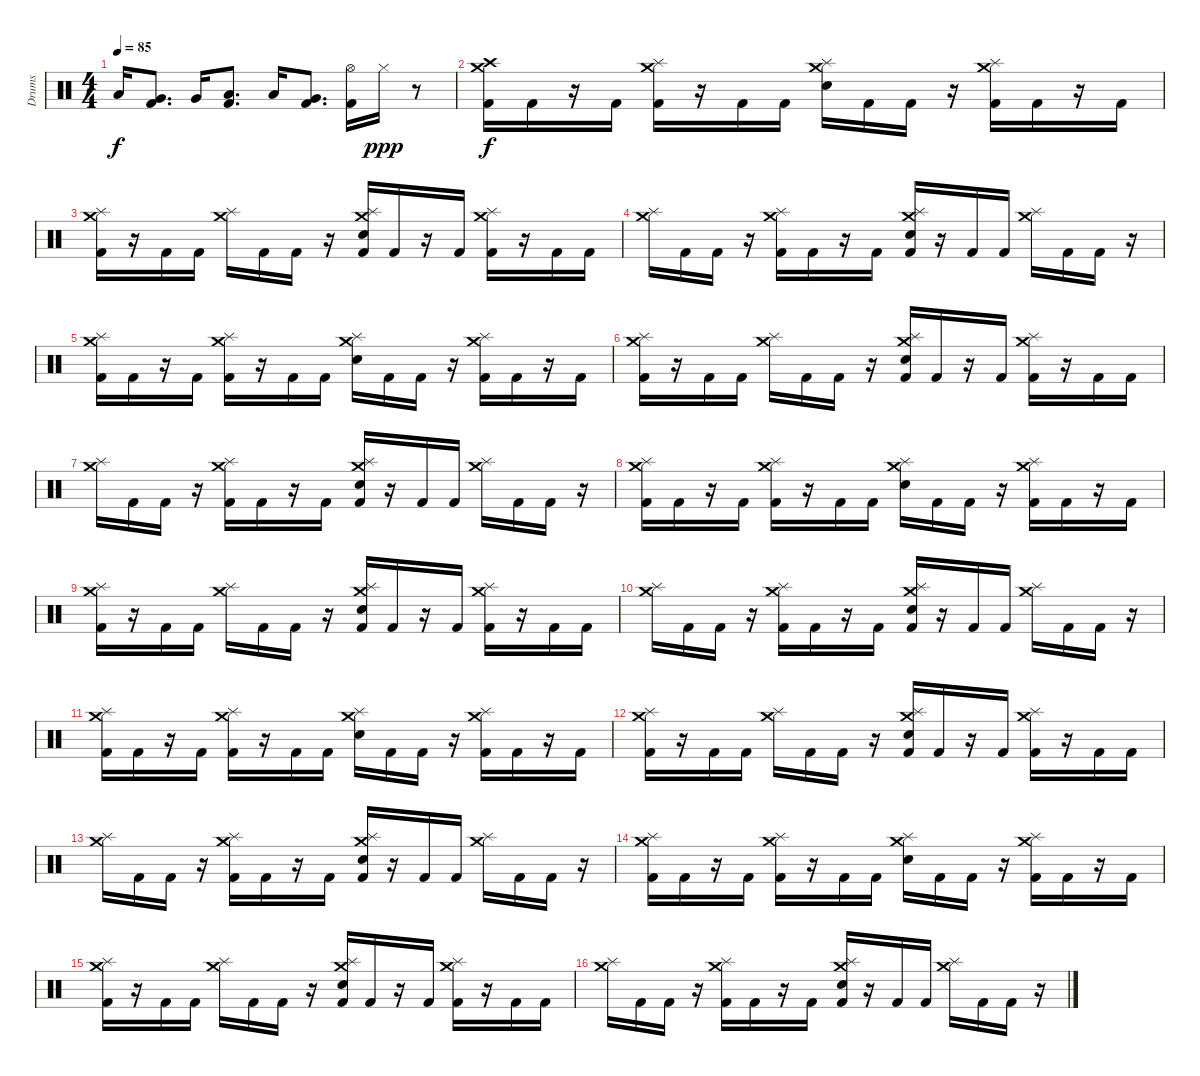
\track ("Drums" "Drums") {instrument percussion}
\staff {score}
\articulation defaults
\ts (4 4)
\tempo 85
\clef neutral
\ks c "Low Tom (hit)".16{dy f}
("Kick (hit) 2" "Very Low Tom (hit)").8{d} "Very Low Tom (hit)".16 ("Kick (hit) 2" "Low Floor Tom (hit)").8{d} "Low Tom (hit)".16 ("Kick (hit) 2" "Very Low Tom (hit)").8{d} ("Hi-Hat (open)" "Kick (hit) 2").16 "Hi-Hat (closed)".16{dy ppp} r.8 |
("Crash high (hit)" "Crash medium (hit)" "Kick (hit) 2").16{dy f} "Kick (hit) 2".16 r.16 "Kick (hit) 2".16 ("Crash medium (hit)" "Splash (hit)" "Kick (hit) 2").16 r.16 "Kick (hit) 2".16 "Kick (hit) 2".16 ("Crash medium (hit)" "Splash (hit)" "Electric Snare (hit)").16 "Kick (hit) 2".16 "Kick (hit) 2".16 r.16 ("Crash medium (hit)" "Splash (hit)" "Kick (hit) 2").16 "Kick (hit) 2".16 r.16 "Kick (hit) 2".16 |
("Crash medium (hit)" "Splash (hit)" "Kick (hit) 2").16 r.16 "Kick (hit) 2".16 "Kick (hit) 2".16 ("Crash medium (hit)" "Splash (hit)").16 "Kick (hit) 2".16 "Kick (hit) 2".16 r.16 ("Crash medium (hit)" "Splash (hit)" "Electric Snare (hit)" "Kick (hit) 2").16 "Kick (hit) 2".16 r.16 "Kick (hit) 2".16 ("Crash medium (hit)" "Splash (hit)" "Kick (hit) 2").16 r.16 "Kick (hit) 2".16 "Kick (hit) 2".16 |
("Crash medium (hit)" "Splash (hit)").16 "Kick (hit) 2".16 "Kick (hit) 2".16 r.16 ("Crash medium (hit)" "Splash (hit)" "Kick (hit) 2").16 "Kick (hit) 2".16 r.16 "Kick (hit) 2".16 ("Crash medium (hit)" "Splash (hit)" "Electric Snare (hit)" "Kick (hit) 2").16 r.16 "Kick (hit) 2".16 "Kick (hit) 2".16 ("Crash medium (hit)" "Splash (hit)").16 "Kick (hit) 2".16 "Kick (hit) 2".16 r.16 |
("Crash medium (hit)" "Splash (hit)" "Kick (hit) 2").16 "Kick (hit) 2".16 r.16 "Kick (hit) 2".16 ("Crash medium (hit)" "Splash (hit)" "Kick (hit) 2").16 r.16 "Kick (hit) 2".16 "Kick (hit) 2".16 ("Crash medium (hit)" "Splash (hit)" "Electric Snare (hit)").16 "Kick (hit) 2".16 "Kick (hit) 2".16 r.16 ("Crash medium (hit)" "Splash (hit)" "Kick (hit) 2").16 "Kick (hit) 2".16 r.16 "Kick (hit) 2".16 |
("Crash medium (hit)" "Splash (hit)" "Kick (hit) 2").16 r.16 "Kick (hit) 2".16 "Kick (hit) 2".16 ("Crash medium (hit)" "Splash (hit)").16 "Kick (hit) 2".16 "Kick (hit) 2".16 r.16 ("Crash medium (hit)" "Splash (hit)" "Electric Snare (hit)" "Kick (hit) 2").16 "Kick (hit) 2".16 r.16 "Kick (hit) 2".16 ("Crash medium (hit)" "Splash (hit)" "Kick (hit) 2").16 r.16 "Kick (hit) 2".16 "Kick (hit) 2".16 |
("Crash medium (hit)" "Splash (hit)").16 "Kick (hit) 2".16 "Kick (hit) 2".16 r.16 ("Crash medium (hit)" "Splash (hit)" "Kick (hit) 2").16 "Kick (hit) 2".16 r.16 "Kick (hit) 2".16 ("Crash medium (hit)" "Splash (hit)" "Electric Snare (hit)" "Kick (hit) 2").16 r.16 "Kick (hit) 2".16 "Kick (hit) 2".16 ("Crash medium (hit)" "Splash (hit)").16 "Kick (hit) 2".16 "Kick (hit) 2".16 r.16 |
("Crash medium (hit)" "Splash (hit)" "Kick (hit) 2").16 "Kick (hit) 2".16 r.16 "Kick (hit) 2".16 ("Crash medium (hit)" "Splash (hit)" "Kick (hit) 2").16 r.16 "Kick (hit) 2".16 "Kick (hit) 2".16 ("Crash medium (hit)" "Splash (hit)" "Electric Snare (hit)").16 "Kick (hit) 2".16 "Kick (hit) 2".16 r.16 ("Crash medium (hit)" "Splash (hit)" "Kick (hit) 2").16 "Kick (hit) 2".16 r.16 "Kick (hit) 2".16 |
("Crash medium (hit)" "Splash (hit)" "Kick (hit) 2").16 r.16 "Kick (hit) 2".16 "Kick (hit) 2".16 ("Crash medium (hit)" "Splash (hit)").16 "Kick (hit) 2".16 "Kick (hit) 2".16 r.16 ("Crash medium (hit)" "Splash (hit)" "Electric Snare (hit)" "Kick (hit) 2").16 "Kick (hit) 2".16 r.16 "Kick (hit) 2".16 ("Crash medium (hit)" "Splash (hit)" "Kick (hit) 2").16 r.16 "Kick (hit) 2".16 "Kick (hit) 2".16 |
("Crash medium (hit)" "Splash (hit)").16 "Kick (hit) 2".16 "Kick (hit) 2".16 r.16 ("Crash medium (hit)" "Splash (hit)" "Kick (hit) 2").16 "Kick (hit) 2".16 r.16 "Kick (hit) 2".16 ("Crash medium (hit)" "Splash (hit)" "Electric Snare (hit)" "Kick (hit) 2").16 r.16 "Kick (hit) 2".16 "Kick (hit) 2".16 ("Crash medium (hit)" "Splash (hit)").16 "Kick (hit) 2".16 "Kick (hit) 2".16 r.16 |
("Crash medium (hit)" "Splash (hit)" "Kick (hit) 2").16 "Kick (hit) 2".16 r.16 "Kick (hit) 2".16 ("Crash medium (hit)" "Splash (hit)" "Kick (hit) 2").16 r.16 "Kick (hit) 2".16 "Kick (hit) 2".16 ("Crash medium (hit)" "Splash (hit)" "Electric Snare (hit)").16 "Kick (hit) 2".16 "Kick (hit) 2".16 r.16 ("Crash medium (hit)" "Splash (hit)" "Kick (hit) 2").16 "Kick (hit) 2".16 r.16 "Kick (hit) 2".16 |
("Crash medium (hit)" "Splash (hit)" "Kick (hit) 2").16 r.16 "Kick (hit) 2".16 "Kick (hit) 2".16 ("Crash medium (hit)" "Splash (hit)").16 "Kick (hit) 2".16 "Kick (hit) 2".16 r.16 ("Crash medium (hit)" "Splash (hit)" "Electric Snare (hit)" "Kick (hit) 2").16 "Kick (hit) 2".16 r.16 "Kick (hit) 2".16 ("Crash medium (hit)" "Splash (hit)" "Kick (hit) 2").16 r.16 "Kick (hit) 2".16 "Kick (hit) 2".16 |
("Crash medium (hit)" "Splash (hit)").16 "Kick (hit) 2".16 "Kick (hit) 2".16 r.16 ("Crash medium (hit)" "Splash (hit)" "Kick (hit) 2").16 "Kick (hit) 2".16 r.16 "Kick (hit) 2".16 ("Crash medium (hit)" "Splash (hit)" "Electric Snare (hit)" "Kick (hit) 2").16 r.16 "Kick (hit) 2".16 "Kick (hit) 2".16 ("Crash medium (hit)" "Splash (hit)").16 "Kick (hit) 2".16 "Kick (hit) 2".16 r.16 |
("Crash medium (hit)" "Splash (hit)" "Kick (hit) 2").16 "Kick (hit) 2".16 r.16 "Kick (hit) 2".16 ("Crash medium (hit)" "Splash (hit)" "Kick (hit) 2").16 r.16 "Kick (hit) 2".16 "Kick (hit) 2".16 ("Crash medium (hit)" "Splash (hit)" "Electric Snare (hit)").16 "Kick (hit) 2".16 "Kick (hit) 2".16 r.16 ("Crash medium (hit)" "Splash (hit)" "Kick (hit) 2").16 "Kick (hit) 2".16 r.16 "Kick (hit) 2".16 |
("Crash medium (hit)" "Splash (hit)" "Kick (hit) 2").16 r.16 "Kick (hit) 2".16 "Kick (hit) 2".16 ("Crash medium (hit)" "Splash (hit)").16 "Kick (hit) 2".16 "Kick (hit) 2".16 r.16 ("Crash medium (hit)" "Splash (hit)" "Electric Snare (hit)" "Kick (hit) 2").16 "Kick (hit) 2".16 r.16 "Kick (hit) 2".16 ("Crash medium (hit)" "Splash (hit)" "Kick (hit) 2").16 r.16 "Kick (hit) 2".16 "Kick (hit) 2".16 |
("Crash medium (hit)" "Splash (hit)").16 "Kick (hit) 2".16 "Kick (hit) 2".16 r.16 ("Crash medium (hit)" "Splash (hit)" "Kick (hit) 2").16 "Kick (hit) 2".16 r.16 "Kick (hit) 2".16 ("Crash medium (hit)" "Splash (hit)" "Electric Snare (hit)" "Kick (hit) 2").16 r.16 "Kick (hit) 2".16 "Kick (hit) 2".16 ("Crash medium (hit)" "Splash (hit)").16 "Kick (hit) 2".16 "Kick (hit) 2".16 r.16
